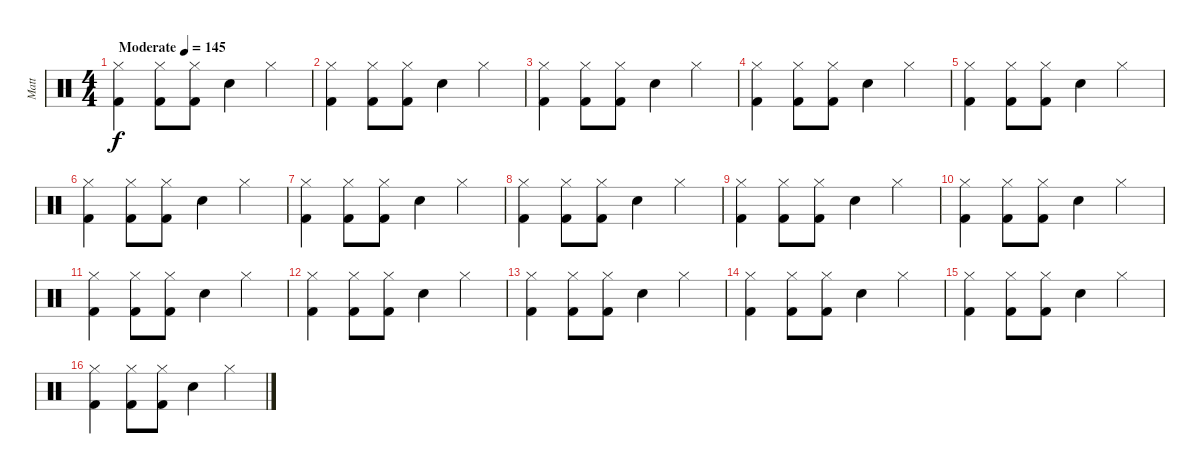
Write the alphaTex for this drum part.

\track ("Matt" "Matt") {instrument percussion}
\staff {score}
\articulation defaults
\ts (4 4)
\tempo (145 "Moderate")
\clef neutral
\ks c
("Hi-Hat (closed)" "Kick (hit) 2").4{dy f} ("Hi-Hat (closed)" "Kick (hit) 2").8 ("Hi-Hat (closed)" "Kick (hit) 2").8 "Electric Snare (hit)".4 "Hi-Hat (closed)".4 |
("Hi-Hat (closed)" "Kick (hit) 2").4 ("Hi-Hat (closed)" "Kick (hit) 2").8 ("Hi-Hat (closed)" "Kick (hit) 2").8 "Electric Snare (hit)".4 "Hi-Hat (closed)".4 |
("Hi-Hat (closed)" "Kick (hit) 2").4 ("Hi-Hat (closed)" "Kick (hit) 2").8 ("Hi-Hat (closed)" "Kick (hit) 2").8 "Electric Snare (hit)".4 "Hi-Hat (closed)".4 |
("Hi-Hat (closed)" "Kick (hit) 2").4 ("Hi-Hat (closed)" "Kick (hit) 2").8 ("Hi-Hat (closed)" "Kick (hit) 2").8 "Electric Snare (hit)".4 "Hi-Hat (closed)".4 |
("Hi-Hat (closed)" "Kick (hit) 2").4 ("Hi-Hat (closed)" "Kick (hit) 2").8 ("Hi-Hat (closed)" "Kick (hit) 2").8 "Electric Snare (hit)".4 "Hi-Hat (closed)".4 |
("Hi-Hat (closed)" "Kick (hit) 2").4 ("Hi-Hat (closed)" "Kick (hit) 2").8 ("Hi-Hat (closed)" "Kick (hit) 2").8 "Electric Snare (hit)".4 "Hi-Hat (closed)".4 |
("Hi-Hat (closed)" "Kick (hit) 2").4 ("Hi-Hat (closed)" "Kick (hit) 2").8 ("Hi-Hat (closed)" "Kick (hit) 2").8 "Electric Snare (hit)".4 "Hi-Hat (closed)".4 |
("Hi-Hat (closed)" "Kick (hit) 2").4 ("Hi-Hat (closed)" "Kick (hit) 2").8 ("Hi-Hat (closed)" "Kick (hit) 2").8 "Electric Snare (hit)".4 "Hi-Hat (closed)".4 |
("Hi-Hat (closed)" "Kick (hit) 2").4 ("Hi-Hat (closed)" "Kick (hit) 2").8 ("Hi-Hat (closed)" "Kick (hit) 2").8 "Electric Snare (hit)".4 "Hi-Hat (closed)".4 |
("Hi-Hat (closed)" "Kick (hit) 2").4 ("Hi-Hat (closed)" "Kick (hit) 2").8 ("Hi-Hat (closed)" "Kick (hit) 2").8 "Electric Snare (hit)".4 "Hi-Hat (closed)".4 |
("Hi-Hat (closed)" "Kick (hit) 2").4 ("Hi-Hat (closed)" "Kick (hit) 2").8 ("Hi-Hat (closed)" "Kick (hit) 2").8 "Electric Snare (hit)".4 "Hi-Hat (closed)".4 |
("Hi-Hat (closed)" "Kick (hit) 2").4 ("Hi-Hat (closed)" "Kick (hit) 2").8 ("Hi-Hat (closed)" "Kick (hit) 2").8 "Electric Snare (hit)".4 "Hi-Hat (closed)".4 |
("Hi-Hat (closed)" "Kick (hit) 2").4 ("Hi-Hat (closed)" "Kick (hit) 2").8 ("Hi-Hat (closed)" "Kick (hit) 2").8 "Electric Snare (hit)".4 "Hi-Hat (closed)".4 |
("Hi-Hat (closed)" "Kick (hit) 2").4 ("Hi-Hat (closed)" "Kick (hit) 2").8 ("Hi-Hat (closed)" "Kick (hit) 2").8 "Electric Snare (hit)".4 "Hi-Hat (closed)".4 |
("Hi-Hat (closed)" "Kick (hit) 2").4 ("Hi-Hat (closed)" "Kick (hit) 2").8 ("Hi-Hat (closed)" "Kick (hit) 2").8 "Electric Snare (hit)".4 "Hi-Hat (closed)".4 |
("Hi-Hat (closed)" "Kick (hit) 2").4 ("Hi-Hat (closed)" "Kick (hit) 2").8 ("Hi-Hat (closed)" "Kick (hit) 2").8 "Electric Snare (hit)".4 "Hi-Hat (closed)".4
